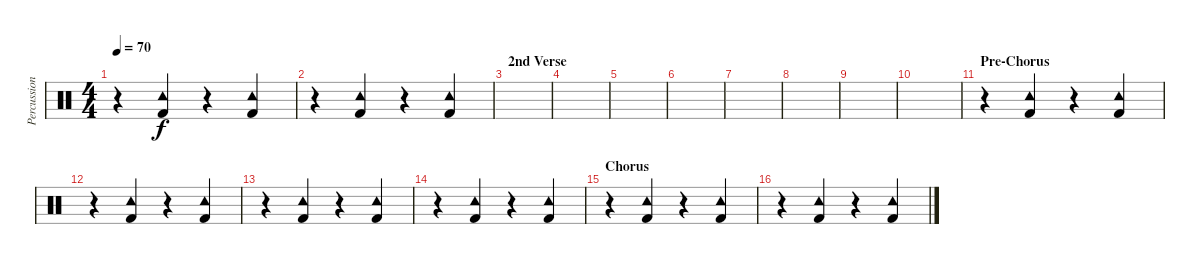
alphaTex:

\track ("Percussion" "Percussion") {instrument percussion}
\staff {score}
\articulation defaults
\ts (4 4)
\tempo 70
\clef neutral
\ks c
r.4{dy f} ("Tambourine (hit)" "Kick (hit) 2").4 r.4 ("Tambourine (hit)" "Kick (hit) 2").4 |
r.4 ("Tambourine (hit)" "Kick (hit) 2").4 r.4 ("Tambourine (hit)" "Kick (hit) 2").4 |
\section ("" "2nd Verse")
|
|
|
|
|
|
|
|
\section ("" "Pre-Chorus")
r.4 ("Tambourine (hit)" "Kick (hit) 2").4 r.4 ("Tambourine (hit)" "Kick (hit) 2").4 |
r.4 ("Tambourine (hit)" "Kick (hit) 2").4 r.4 ("Tambourine (hit)" "Kick (hit) 2").4 |
r.4 ("Tambourine (hit)" "Kick (hit) 2").4 r.4 ("Tambourine (hit)" "Kick (hit) 2").4 |
r.4 ("Tambourine (hit)" "Kick (hit) 2").4 r.4 ("Tambourine (hit)" "Kick (hit) 2").4 |
\section ("" "Chorus")
r.4 ("Tambourine (hit)" "Kick (hit) 2").4 r.4 ("Tambourine (hit)" "Kick (hit) 2").4 |
r.4 ("Tambourine (hit)" "Kick (hit) 2").4 r.4 ("Tambourine (hit)" "Kick (hit) 2").4
